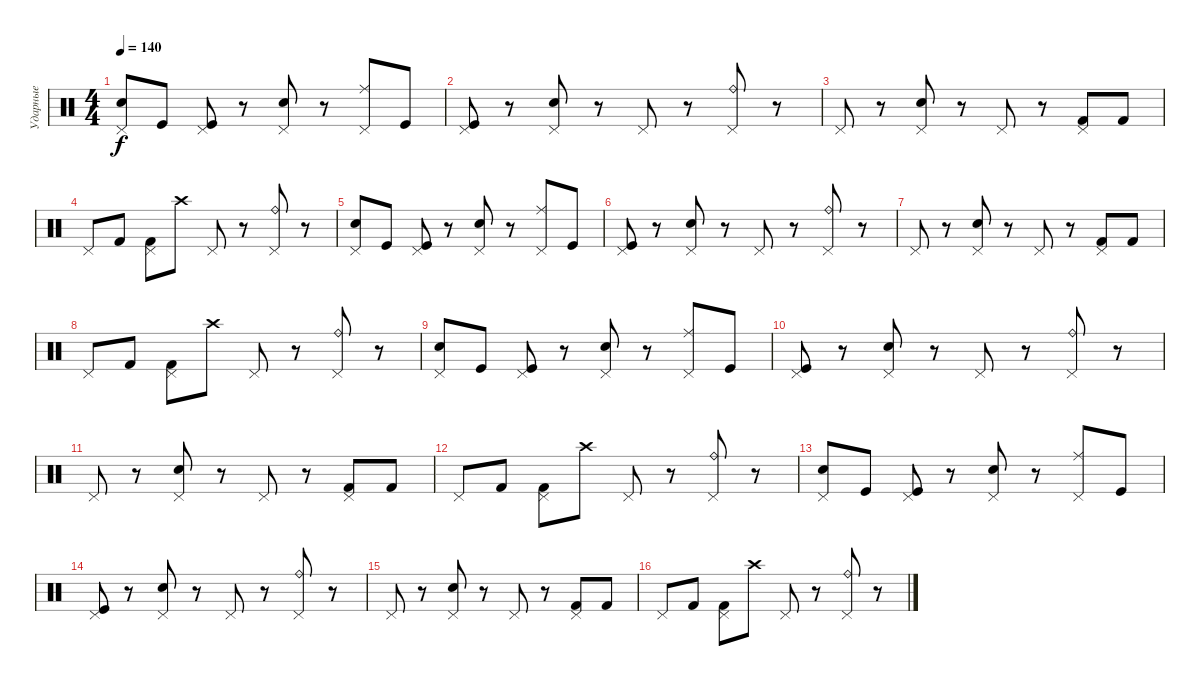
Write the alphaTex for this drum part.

\track ("Ударные" "Ударные") {instrument percussion bank 7}
\staff {score}
\articulation defaults
\ts (4 4)
\tempo 140
\clef neutral
\ks c
("Pedal Hi-Hat (hit)" "Snare (hit) 2").8{dy f} "Kick (hit)".8 ("Pedal Hi-Hat (hit)" "Kick (hit)").8 r.8 ("Pedal Hi-Hat (hit)" "Electric Snare (hit)").8 r.8 ("Pedal Hi-Hat (hit)" "Ride (middle)").8 "Kick (hit)".8 |
("Pedal Hi-Hat (hit)" "Kick (hit)").8 r.8 ("Pedal Hi-Hat (hit)" "Electric Snare (hit)").8 r.8 "Pedal Hi-Hat (hit)".8 r.8 ("Pedal Hi-Hat (hit)" "Ride (bell)").8 r.8 |
"Pedal Hi-Hat (hit)".8 r.8 ("Pedal Hi-Hat (hit)" "Electric Snare (hit)").8 r.8 "Pedal Hi-Hat (hit)".8 r.8 ("Pedal Hi-Hat (hit)" "Kick (hit) 2").8 "Kick (hit) 2".8 |
"Pedal Hi-Hat (hit)".8 "Kick (hit) 2".8 ("Pedal Hi-Hat (hit)" "Kick (hit) 2").8 "Crash high (hit)".8 "Pedal Hi-Hat (hit)".8 r.8 ("Pedal Hi-Hat (hit)" "Ride (bell)").8 r.8 |
("Pedal Hi-Hat (hit)" "Snare (hit) 2").8 "Kick (hit)".8 ("Pedal Hi-Hat (hit)" "Kick (hit)").8 r.8 ("Pedal Hi-Hat (hit)" "Electric Snare (hit)").8 r.8 ("Pedal Hi-Hat (hit)" "Ride (middle)").8 "Kick (hit)".8 |
("Pedal Hi-Hat (hit)" "Kick (hit)").8 r.8 ("Pedal Hi-Hat (hit)" "Electric Snare (hit)").8 r.8 "Pedal Hi-Hat (hit)".8 r.8 ("Pedal Hi-Hat (hit)" "Ride (bell)").8 r.8 |
"Pedal Hi-Hat (hit)".8 r.8 ("Pedal Hi-Hat (hit)" "Electric Snare (hit)").8 r.8 "Pedal Hi-Hat (hit)".8 r.8 ("Pedal Hi-Hat (hit)" "Kick (hit) 2").8 "Kick (hit) 2".8 |
"Pedal Hi-Hat (hit)".8 "Kick (hit) 2".8 ("Pedal Hi-Hat (hit)" "Kick (hit) 2").8 "Crash high (hit)".8 "Pedal Hi-Hat (hit)".8 r.8 ("Pedal Hi-Hat (hit)" "Ride (bell)").8 r.8 |
("Pedal Hi-Hat (hit)" "Snare (hit) 2").8 "Kick (hit)".8 ("Pedal Hi-Hat (hit)" "Kick (hit)").8 r.8 ("Pedal Hi-Hat (hit)" "Electric Snare (hit)").8 r.8 ("Pedal Hi-Hat (hit)" "Ride (middle)").8 "Kick (hit)".8 |
("Pedal Hi-Hat (hit)" "Kick (hit)").8 r.8 ("Pedal Hi-Hat (hit)" "Electric Snare (hit)").8 r.8 "Pedal Hi-Hat (hit)".8 r.8 ("Pedal Hi-Hat (hit)" "Ride (bell)").8 r.8 |
"Pedal Hi-Hat (hit)".8 r.8 ("Pedal Hi-Hat (hit)" "Electric Snare (hit)").8 r.8 "Pedal Hi-Hat (hit)".8 r.8 ("Pedal Hi-Hat (hit)" "Kick (hit) 2").8 "Kick (hit) 2".8 |
"Pedal Hi-Hat (hit)".8 "Kick (hit) 2".8 ("Pedal Hi-Hat (hit)" "Kick (hit) 2").8 "Crash high (hit)".8 "Pedal Hi-Hat (hit)".8 r.8 ("Pedal Hi-Hat (hit)" "Ride (bell)").8 r.8 |
("Pedal Hi-Hat (hit)" "Snare (hit) 2").8 "Kick (hit)".8 ("Pedal Hi-Hat (hit)" "Kick (hit)").8 r.8 ("Pedal Hi-Hat (hit)" "Electric Snare (hit)").8 r.8 ("Pedal Hi-Hat (hit)" "Ride (middle)").8 "Kick (hit)".8 |
("Pedal Hi-Hat (hit)" "Kick (hit)").8 r.8 ("Pedal Hi-Hat (hit)" "Electric Snare (hit)").8 r.8 "Pedal Hi-Hat (hit)".8 r.8 ("Pedal Hi-Hat (hit)" "Ride (bell)").8 r.8 |
"Pedal Hi-Hat (hit)".8 r.8 ("Pedal Hi-Hat (hit)" "Electric Snare (hit)").8 r.8 "Pedal Hi-Hat (hit)".8 r.8 ("Pedal Hi-Hat (hit)" "Kick (hit) 2").8 "Kick (hit) 2".8 |
"Pedal Hi-Hat (hit)".8 "Kick (hit) 2".8 ("Pedal Hi-Hat (hit)" "Kick (hit) 2").8 "Crash high (hit)".8 "Pedal Hi-Hat (hit)".8 r.8 ("Pedal Hi-Hat (hit)" "Ride (bell)").8 r.8
